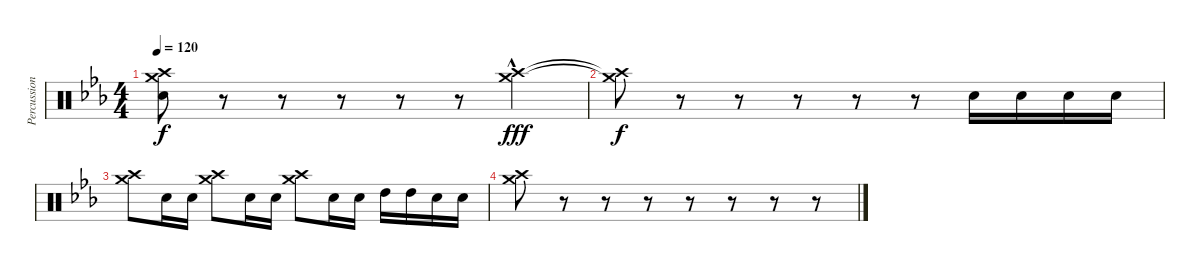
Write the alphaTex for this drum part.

\track ("Percussion" "Percussion") {instrument percussion}
\staff {score}
\articulation defaults
\ts (4 4)
\tempo 120
\clef neutral
\ks eb
("Crash high (hit)"{t} "Crash medium (hit)"{t} "Snare (hit)"{t}).8{dy f} r.8 r.8 r.8 r.8 r.8 ("Crash high (hit)"{hac} "Crash medium (hit)"{hac}).4{dy fff} |
("Crash high (hit)"{t} "Crash medium (hit)"{t}).8{dy f} r.8 r.8 r.8 r.8 r.8 "Electric Snare (hit)".16 "Electric Snare (hit)".16 "Electric Snare (hit)".16 "Electric Snare (hit)".16 |
("Crash high (hit)" "Crash medium (hit)").8 "Electric Snare (hit)".16 "Electric Snare (hit)".16 ("Crash high (hit)" "Crash medium (hit)").8 "Electric Snare (hit)".16 "Electric Snare (hit)".16 ("Crash high (hit)" "Crash medium (hit)").8 "Electric Snare (hit)".16 "Electric Snare (hit)".16 "High Tom (hit)".16 "High Tom (hit)".16 "Electric Snare (hit)".16 "Electric Snare (hit)".16 |
("Crash high (hit)" "Crash medium (hit)").8 r.8 r.8 r.8 r.8 r.8 r.8 r.8
